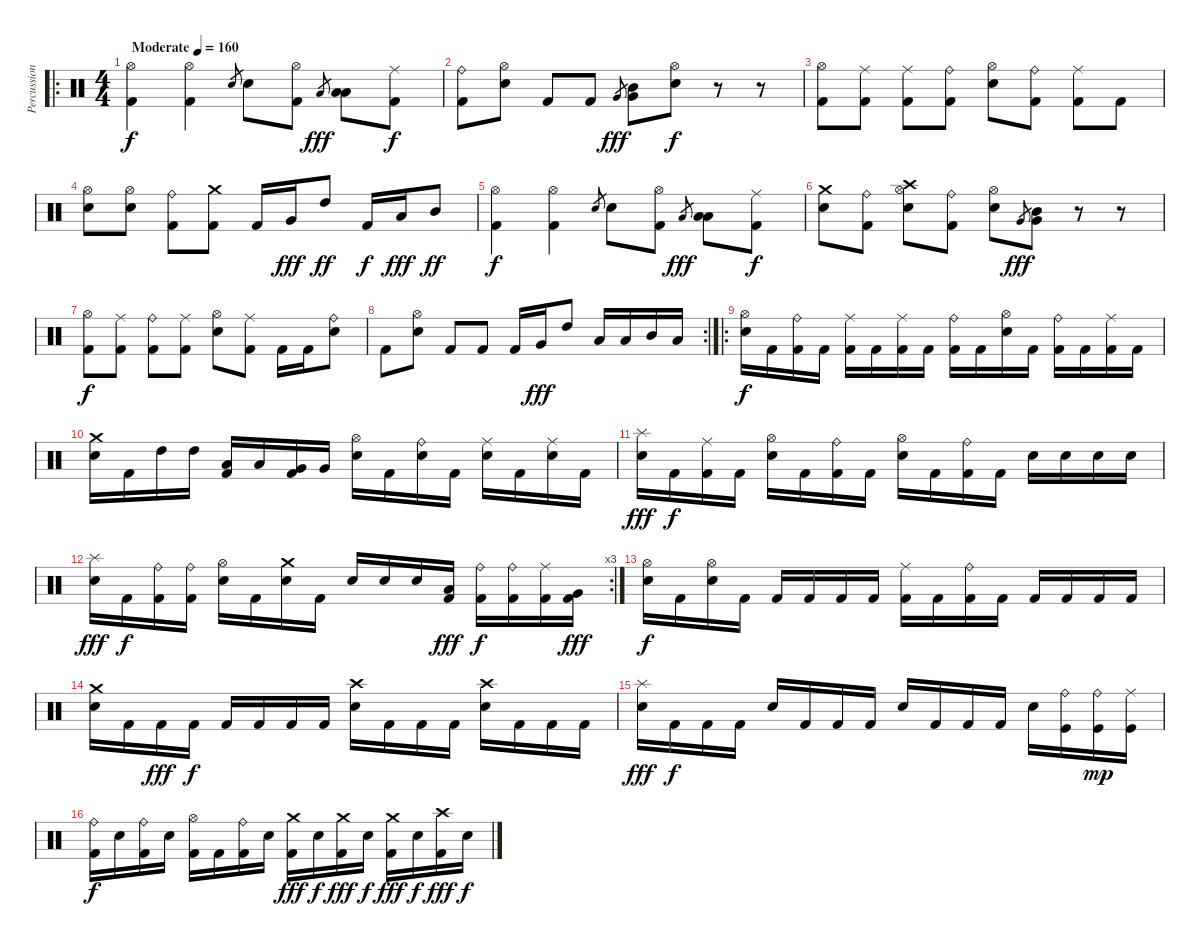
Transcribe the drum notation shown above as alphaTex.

\track ("Percussion" "Percussion") {instrument percussion}
\staff {score}
\articulation defaults
\ro
\ts (4 4)
\tempo (160 "Moderate")
\clef neutral
\ks c
("Hi-Hat (open)" "Kick (hit) 2").4{dy f} ("Hi-Hat (open)" "Kick (hit) 2").4 "Electric Snare (hit)".8{gr} "Electric Snare (hit)".8 ("Hi-Hat (open)" "Kick (hit) 2").8 "Low Floor Tom (hit)".8{gr dy fff} ("Low Floor Tom (hit)" "Low Tom (hit)").8 ("Ride (middle)" "Kick (hit) 2").8{dy f} |
("Ride (bell)" "Kick (hit) 2").8 ("Hi-Hat (open)" "Electric Snare (hit)").8 "Kick (hit) 2".8 "Kick (hit) 2".8 "Very Low Tom (hit)".8{gr dy fff} ("Very Low Tom (hit)" "Mid Tom (hit)").8 ("Hi-Hat (open)" "Electric Snare (hit)").8{dy f} r.8 r.8 |
("Hi-Hat (open)" "Kick (hit) 2").8 ("Ride (middle)" "Kick (hit) 2").8 ("Ride (middle)" "Kick (hit) 2").8 ("Ride (bell)" "Kick (hit) 2").8 ("Hi-Hat (open)" "Electric Snare (hit)").8 ("Ride (bell)" "Kick (hit) 2").8 ("Ride (middle)" "Kick (hit) 2").8 "Kick (hit) 2".8 |
("Hi-Hat (open)" "Electric Snare (hit)").8 ("Hi-Hat (open)" "Electric Snare (hit)").8 ("Ride (bell)" "Kick (hit) 2").8 ("Crash medium (hit)" "Kick (hit) 2").8 "Kick (hit) 2".16 "Very Low Tom (hit)".16{dy fff} "High Tom (hit)".8{dy ff} "Kick (hit) 2".16{dy f} "Low Floor Tom (hit)".16{dy fff} "Mid Tom (hit)".8{dy ff} |
("Hi-Hat (open)" "Kick (hit) 2").4{dy f} ("Hi-Hat (open)" "Kick (hit) 2").4 "Electric Snare (hit)".8{gr} "Electric Snare (hit)".8 ("Hi-Hat (open)" "Kick (hit) 2").8 "Low Floor Tom (hit)".8{gr dy fff} ("Low Floor Tom (hit)" "Low Tom (hit)").8 ("Ride (middle)" "Kick (hit) 2").8{dy f} |
("Crash medium (hit)" "Electric Snare (hit)").8 ("Ride (bell)" "Kick (hit) 2").8 ("Crash high (hit)" "Hi-Hat (open)" "Electric Snare (hit)").8 ("Ride (bell)" "Kick (hit) 2").8 ("Hi-Hat (open)" "Electric Snare (hit)").8 "Very Low Tom (hit)".8{gr dy fff} ("Very Low Tom (hit)" "Mid Tom (hit)").8 r.8 r.8 |
("Hi-Hat (open)" "Kick (hit) 2").8{dy f} ("Ride (middle)" "Kick (hit) 2").8 ("Ride (bell)" "Kick (hit) 2").8 ("Ride (middle)" "Kick (hit) 2").8 ("Hi-Hat (open)" "Electric Snare (hit)").8 ("Ride (middle)" "Kick (hit) 2").8 "Kick (hit) 2".16 "Kick (hit) 2".16 ("Ride (bell)" "Electric Snare (hit)").8 |
\rc 2 "Kick (hit) 2".8
("Hi-Hat (open)" "Electric Snare (hit)").8 "Kick (hit) 2".8 "Kick (hit) 2".8 "Kick (hit) 2".16 "Very Low Tom (hit)".16{dy fff} "High Tom (hit)".8 "Low Tom (hit)".16 "Low Floor Tom (hit)".16 "Mid Tom (hit)".16 "Low Tom (hit)".16 |
\ro
("Hi-Hat (open)" "Electric Snare (hit)").16{dy f} "Kick (hit) 2".16 ("Ride (bell)" "Kick (hit) 2").16 "Kick (hit) 2".16 ("Ride (middle)" "Kick (hit) 2").16 "Kick (hit) 2".16 ("Ride (middle)" "Kick (hit) 2").16 "Kick (hit) 2".16 ("Ride (bell)" "Kick (hit) 2").16 "Kick (hit) 2".16 ("Hi-Hat (open)" "Electric Snare (hit)").16 "Kick (hit) 2".16 ("Ride (bell)" "Kick (hit) 2").16 "Kick (hit) 2".16 ("Ride (middle)" "Kick (hit) 2").16 "Kick (hit) 2".16 |
("Crash medium (hit)" "Electric Snare (hit)").16 "Kick (hit) 2".16 "High Tom (hit)".16 "High Tom (hit)".16 ("Low Tom (hit)" "Kick (hit) 2").16 "Low Tom (hit)".16 ("Very Low Tom (hit)" "Kick (hit) 2").16 "Very Low Tom (hit)".16 ("Hi-Hat (open)" "Electric Snare (hit)").16 "Kick (hit) 2".16 ("Ride (bell)" "Electric Snare (hit)").16 "Kick (hit) 2".16 ("Ride (middle)" "Electric Snare (hit)").16 "Kick (hit) 2".16 ("Ride (middle)" "Electric Snare (hit)").16 "Kick (hit) 2".16 |
("Splash (hit)" "Electric Snare (hit)").16{dy fff} "Kick (hit) 2".16{dy f} ("Ride (middle)" "Kick (hit) 2").16 "Kick (hit) 2".16 ("Hi-Hat (open)" "Electric Snare (hit)").16 "Kick (hit) 2".16 ("Ride (bell)" "Kick (hit) 2").16 "Kick (hit) 2".16 ("Hi-Hat (open)" "Electric Snare (hit)").16 "Kick (hit) 2".16 ("Ride (bell)" "Kick (hit) 2").16 "Kick (hit) 2".16 "Electric Snare (hit)".16 "Electric Snare (hit)".16 "Electric Snare (hit)".16 "Electric Snare (hit)".16 |
\rc 3
("Splash (hit)" "Electric Snare (hit)").16{dy fff} "Kick (hit) 2".16{dy f} ("Ride (bell)" "Kick (hit) 2").16 ("Ride (bell)" "Kick (hit) 2").16 ("Hi-Hat (open)" "Electric Snare (hit)").16 "Kick (hit) 2".16 ("Crash medium (hit)" "Electric Snare (hit)").16 "Kick (hit) 2".16 "Electric Snare (hit)".16 "Electric Snare (hit)".16 "Electric Snare (hit)".16 ("Low Tom (hit)" "Kick (hit) 2").16{dy fff} ("Ride (bell)" "Kick (hit) 2").16{dy f} ("Ride (bell)" "Kick (hit) 2").16 ("Ride (middle)" "Kick (hit) 2").16 ("Very Low Tom (hit)" "Kick (hit) 2").16{dy fff} |
("Hi-Hat (open)" "Electric Snare (hit)").16{dy f} "Kick (hit) 2".16 ("Hi-Hat (open)" "Electric Snare (hit)").16 "Kick (hit) 2".16 "Kick (hit) 2".16 "Kick (hit) 2".16 "Kick (hit) 2".16 "Kick (hit) 2".16 ("Ride (middle)" "Kick (hit) 2").16 "Kick (hit) 2".16 ("Ride (bell)" "Kick (hit) 2").16 "Kick (hit) 2".16 "Kick (hit) 2".16 "Kick (hit) 2".16 "Kick (hit) 2".16 "Kick (hit) 2".16 |
("Crash medium (hit)" "Electric Snare (hit)").16 "Kick (hit) 2".16 "Kick (hit) 2".16{dy fff} "Kick (hit) 2".16{dy f} "Kick (hit) 2".16 "Kick (hit) 2".16 "Kick (hit) 2".16 "Kick (hit) 2".16 ("Crash high (hit)" "Electric Snare (hit)").16 "Kick (hit) 2".16 "Kick (hit) 2".16 "Kick (hit) 2".16 ("Crash high (hit)" "Electric Snare (hit)").16 "Kick (hit) 2".16 "Kick (hit) 2".16 "Kick (hit) 2".16 |
("Splash (hit)" "Electric Snare (hit)").16{dy fff} "Kick (hit) 2".16{dy f} "Kick (hit) 2".16 "Kick (hit) 2".16 "Electric Snare (hit)".16 "Kick (hit) 2".16 "Kick (hit) 2".16 "Kick (hit) 2".16 "Electric Snare (hit)".16 "Kick (hit) 2".16 "Kick (hit) 2".16 "Kick (hit) 2".16 "Electric Snare (hit)".16 ("Ride (bell)" "Kick (hit)").16 ("Ride (bell)" "Kick (hit)").16{dy mp} ("Ride (middle)" "Kick (hit)").16 |
("Ride (bell)" "Kick (hit) 2").16{dy f} "Electric Snare (hit)".16 ("Ride (bell)" "Kick (hit) 2").16 "Electric Snare (hit)".16 ("Hi-Hat (open)" "Kick (hit) 2").16 "Kick (hit) 2".16 ("Ride (bell)" "Kick (hit) 2").16 "Electric Snare (hit)".16 ("Crash medium (hit)" "Kick (hit) 2").16{dy fff} "Electric Snare (hit)".16{dy f} ("Crash medium (hit)" "Kick (hit) 2").16{dy fff} "Electric Snare (hit)".16{dy f} ("Crash medium (hit)" "Kick (hit) 2").16{dy fff} "Electric Snare (hit)".16{dy f} ("Crash high (hit)" "Kick (hit) 2").16{dy fff} "Electric Snare (hit)".16{dy f}
